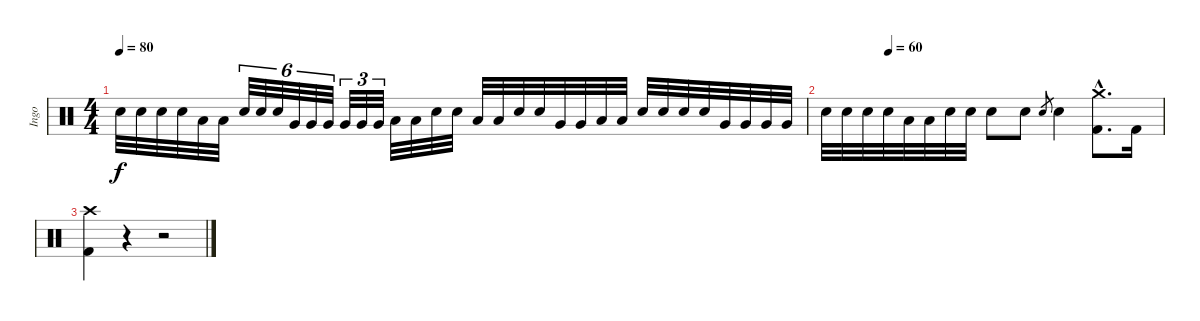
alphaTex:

\track ("Ingo" "Ingo") {instrument percussion}
\staff {score}
\articulation defaults
\ts (4 4)
\tempo 80
\clef neutral
\ks c "Electric Snare (hit)".32{dy f} "Electric Snare (hit)".32 "Electric Snare (hit)".32 "Electric Snare (hit)".32 "Low Tom (hit)".32 "Low Tom (hit)".32 "Electric Snare (hit)".32{tu (6 4)} "Electric Snare (hit)".32{tu (6 4)} "Electric Snare (hit)".32{tu (6 4)} "Very Low Tom (hit)".32{tu (6 4)} "Very Low Tom (hit)".32{tu (6 4)} "Very Low Tom (hit)".32{tu (6 4)} "Very Low Tom (hit)".32{tu (3 2)} "Very Low Tom (hit)".32{tu (3 2)} "Very Low Tom (hit)".32{tu (3 2)} "Low Floor Tom (hit)".32 "Low Floor Tom (hit)".32 "Electric Snare (hit)".32 "Electric Snare (hit)".32 "Low Tom (hit)".32 "Low Tom (hit)".32 "Electric Snare (hit)".32 "Electric Snare (hit)".32 "Very Low Tom (hit)".32 "Very Low Tom (hit)".32 "Low Floor Tom (hit)".32 "Low Floor Tom (hit)".32 "Electric Snare (hit)".32 "Electric Snare (hit)".32 "Electric Snare (hit)".32 "Electric Snare (hit)".32 "Very Low Tom (hit)".32 "Very Low Tom (hit)".32 "Very Low Tom (hit)".32 "Very Low Tom (hit)".32
|
\tempo (60 0.1875)
"Electric Snare (hit)".32 "Electric Snare (hit)".32 "Electric Snare (hit)".32 "Electric Snare (hit)".32 "Low Tom (hit)".32 "Low Tom (hit)".32 "Electric Snare (hit)".32 "Electric Snare (hit)".32 "Electric Snare (hit)".8 "Electric Snare (hit)".8 "Electric Snare (hit)".8{gr} "Electric Snare (hit)".4 ("Crash medium (hit)"{hac} "Kick (hit) 2"{hac}).8{d} "Kick (hit) 2".16 |
("Crash high (hit)" "Kick (hit) 2").4 r.4 r.2
